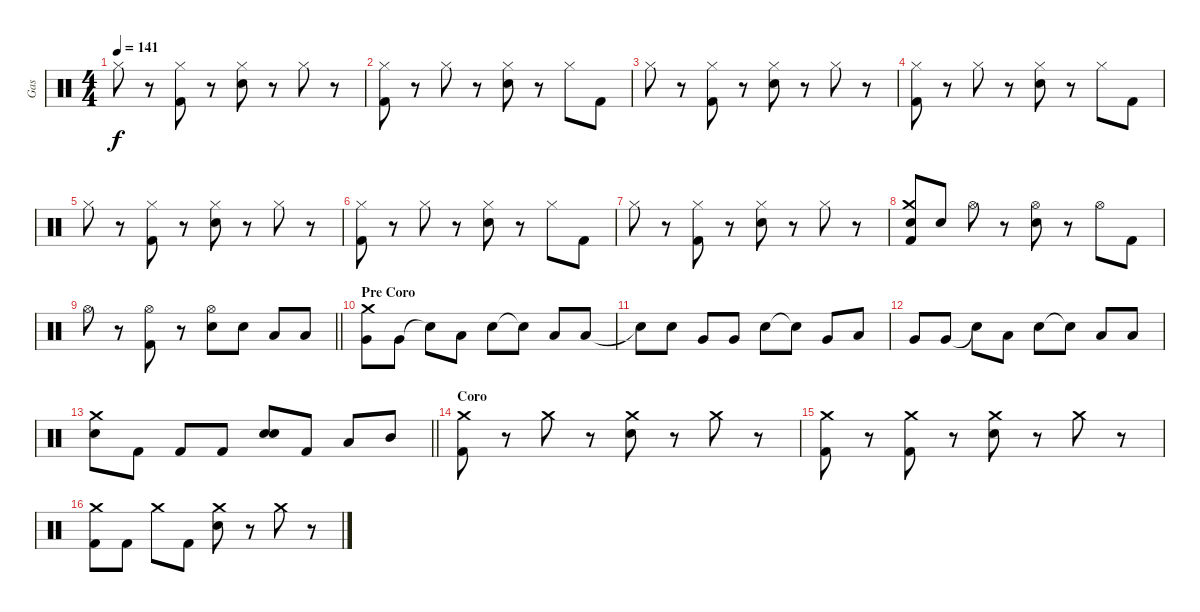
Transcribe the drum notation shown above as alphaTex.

\track ("Gas" "Gas") {instrument percussion}
\staff {score}
\articulation defaults
\ts (4 4)
\tempo 141
\clef neutral
\ks c "Hi-Hat (closed)".8{dy f}
r.8 ("Hi-Hat (closed)" "Kick (hit) 2").8 r.8 ("Hi-Hat (closed)" "Electric Snare (hit)").8 r.8 "Hi-Hat (closed)".8 r.8 |
("Hi-Hat (closed)" "Kick (hit) 2").8 r.8 "Hi-Hat (closed)".8 r.8 ("Hi-Hat (closed)" "Electric Snare (hit)").8 r.8 "Hi-Hat (closed)".8 "Kick (hit) 2".8 |
"Hi-Hat (closed)".8 r.8 ("Hi-Hat (closed)" "Kick (hit) 2").8 r.8 ("Hi-Hat (closed)" "Electric Snare (hit)").8 r.8 "Hi-Hat (closed)".8 r.8 |
("Hi-Hat (closed)" "Kick (hit) 2").8 r.8 "Hi-Hat (closed)".8 r.8 ("Hi-Hat (closed)" "Electric Snare (hit)").8 r.8 "Hi-Hat (closed)".8 "Kick (hit) 2".8 |
"Hi-Hat (closed)".8 r.8 ("Hi-Hat (closed)" "Kick (hit) 2").8 r.8 ("Hi-Hat (closed)" "Electric Snare (hit)").8 r.8 "Hi-Hat (closed)".8 r.8 |
("Hi-Hat (closed)" "Kick (hit) 2").8 r.8 "Hi-Hat (closed)".8 r.8 ("Hi-Hat (closed)" "Electric Snare (hit)").8 r.8 "Hi-Hat (closed)".8 "Kick (hit) 2".8 |
"Hi-Hat (closed)".8 r.8 ("Hi-Hat (closed)" "Kick (hit) 2").8 r.8 ("Hi-Hat (closed)" "Electric Snare (hit)").8 r.8 "Hi-Hat (closed)".8 r.8 |
("Crash medium (hit)" "Snare (hit)" "Kick (hit) 2").8 "Snare (hit)".8 "Hi-Hat (open)".8 r.8 ("Hi-Hat (open)" "Electric Snare (hit)").8 r.8 "Hi-Hat (open)".8 "Kick (hit) 2".8 |
\barLineRight lightlight "Hi-Hat (open)".8
r.8 ("Hi-Hat (open)" "Kick (hit) 2").8 r.8 ("Hi-Hat (open)" "Electric Snare (hit)").8 "Electric Snare (hit)".8 "Low Tom (hit)".8 "Low Tom (hit)".8 |
\section ("" "Pre Coro")
("Crash medium (hit)" "Very Low Tom (hit)").8 "Very Low Tom (hit)".8 "Snare (hit)"{t}.8 "Low Tom (hit)".8 "Electric Snare (hit)".8 "Snare (hit)"{t}.8 "Low Tom (hit)".8 "Low Tom (hit)".8 |
"Snare (hit)"{t}.8 "Electric Snare (hit)".8 "Very Low Tom (hit)".8 "Very Low Tom (hit)".8 "Electric Snare (hit)".8 "Snare (hit)"{t}.8 "Very Low Tom (hit)".8 "Low Tom (hit)".8 |
"Very Low Tom (hit)".8 "Very Low Tom (hit)".8 "Snare (hit)"{t}.8 "Low Tom (hit)".8 "Electric Snare (hit)".8 "Snare (hit)"{t}.8 "Low Tom (hit)".8 "Low Tom (hit)".8 |
\barLineRight lightlight
("Crash medium (hit)" "Electric Snare (hit)").8 "Kick (hit) 2".8 "Kick (hit) 2".8 "Kick (hit) 2".8 ("Electric Snare (hit)" "Electric Snare (hit)").8{bd 240} "Kick (hit) 2".8 "Low Tom (hit)".8 "Mid Tom (hit)".8 |
\section ("" "Coro")
("Crash medium (hit)" "Kick (hit) 2").8 r.8 "Crash medium (hit)".8 r.8 ("Crash medium (hit)" "Electric Snare (hit)").8 r.8 "Crash medium (hit)".8 r.8 |
("Crash medium (hit)" "Kick (hit) 2").8 r.8 ("Crash medium (hit)" "Kick (hit) 2").8 r.8 ("Crash medium (hit)" "Electric Snare (hit)").8 r.8 "Crash medium (hit)".8 r.8 |
("Crash medium (hit)" "Kick (hit) 2").8 "Kick (hit) 2".8 "Crash medium (hit)".8 "Kick (hit) 2".8 ("Crash medium (hit)" "Electric Snare (hit)").8 r.8 "Crash medium (hit)".8 r.8
